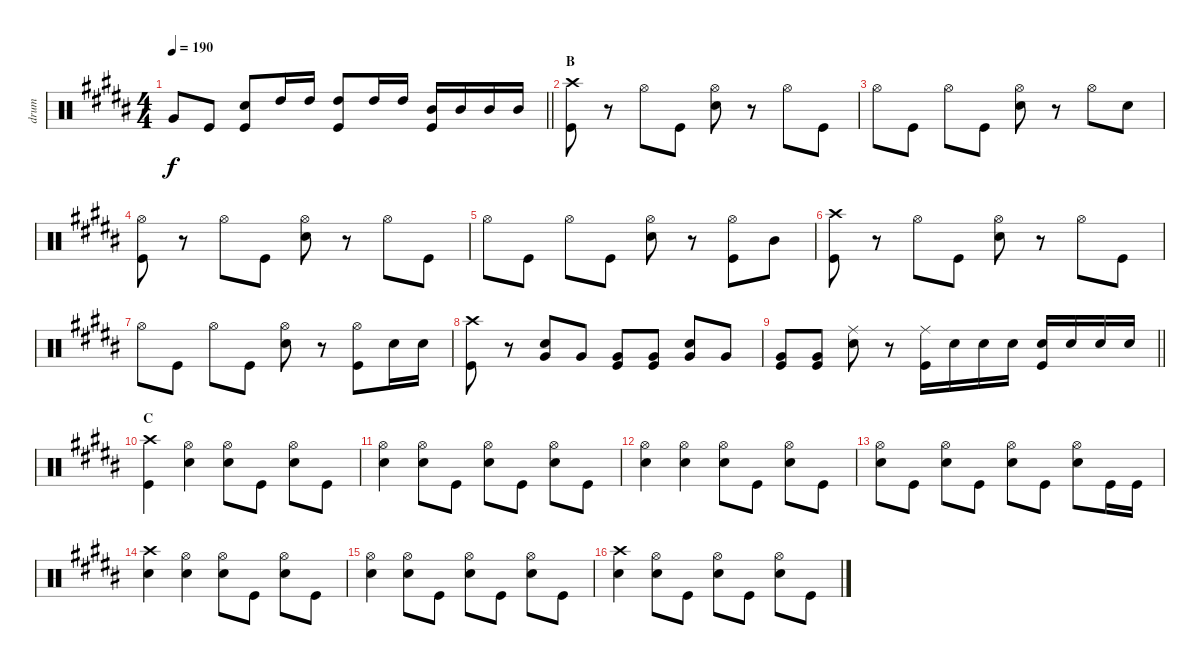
\track ("drum" "drum") {instrument percussion}
\staff {score}
\articulation defaults
\ts (4 4)
\tempo 190
\clef neutral
\barLineRight lightlight
\ks b "Very Low Tom (hit)".8{dy f} "Kick (hit)".8
("Snare (hit) 2" "Kick (hit)").8 "High Tom (hit)".16 "High Tom (hit)".16 ("High Tom (hit)" "Kick (hit)").8 "High Tom (hit)".16 "High Tom (hit)".16 ("Mid Tom (hit)" "Kick (hit)").16 "Mid Tom (hit)".16 "Mid Tom (hit)".16 "Mid Tom (hit)".16 |
\section ("" "B")
("Crash high (hit)" "Kick (hit)").8 r.8 "Hi-Hat (open)".8 "Kick (hit)".8 ("Hi-Hat (open)" "Snare (hit) 2").8 r.8 "Hi-Hat (open)".8 "Kick (hit)".8 |
"Hi-Hat (open)".8 "Kick (hit)".8 "Hi-Hat (open)".8 "Kick (hit)".8 ("Hi-Hat (open)" "Snare (hit) 2").8 r.8 "Hi-Hat (open)".8 "Snare (hit) 2".8 |
("Hi-Hat (open)" "Kick (hit)").8 r.8 "Hi-Hat (open)".8 "Kick (hit)".8 ("Hi-Hat (open)" "Snare (hit) 2").8 r.8 "Hi-Hat (open)".8 "Kick (hit)".8 |
"Hi-Hat (open)".8 "Kick (hit)".8 "Hi-Hat (open)".8 "Kick (hit)".8 ("Hi-Hat (open)" "Snare (hit) 2").8 r.8 ("Hi-Hat (open)" "Kick (hit)").8 "Mid Tom (hit)".8 |
("Crash high (hit)" "Kick (hit)").8 r.8 "Hi-Hat (open)".8 "Kick (hit)".8 ("Hi-Hat (open)" "Snare (hit) 2").8 r.8 "Hi-Hat (open)".8 "Kick (hit)".8 |
"Hi-Hat (open)".8 "Kick (hit)".8 "Hi-Hat (open)".8 "Kick (hit)".8 ("Hi-Hat (open)" "Snare (hit) 2").8 r.8 ("Hi-Hat (open)" "Kick (hit)").8 "Snare (hit) 2".16 "Snare (hit) 2".16 |
("Crash high (hit)" "Kick (hit)").8 r.8 ("Snare (hit) 2" "Very Low Tom (hit)").8 "Very Low Tom (hit)".8 ("Very Low Tom (hit)" "Kick (hit)").8 ("Very Low Tom (hit)" "Kick (hit)").8 ("Snare (hit) 2" "Very Low Tom (hit)").8 "Very Low Tom (hit)".8 |
\barLineRight lightlight
("Very Low Tom (hit)" "Kick (hit)").8 ("Very Low Tom (hit)" "Kick (hit)").8 ("Ride (middle)" "Snare (hit) 2").8 r.8 ("Ride (middle)" "Kick (hit)").16 "Snare (hit) 2".16 "Snare (hit) 2".16 "Snare (hit) 2".16 ("Snare (hit) 2" "Kick (hit)").16 "Snare (hit) 2".16 "Snare (hit) 2".16 "Snare (hit) 2".16 |
\section ("" "C")
("Crash high (hit)" "Kick (hit)").4 ("Hi-Hat (open)" "Snare (hit) 2").4 ("Hi-Hat (open)" "Snare (hit) 2").8 "Kick (hit)".8 ("Hi-Hat (open)" "Snare (hit) 2").8 "Kick (hit)".8 |
("Hi-Hat (open)" "Snare (hit) 2").4 ("Hi-Hat (open)" "Snare (hit) 2").8 "Kick (hit)".8 ("Hi-Hat (open)" "Snare (hit) 2").8 "Kick (hit)".8 ("Hi-Hat (open)" "Snare (hit) 2").8 "Kick (hit)".8 |
("Hi-Hat (open)" "Snare (hit) 2").4 ("Hi-Hat (open)" "Snare (hit) 2").4 ("Hi-Hat (open)" "Snare (hit) 2").8 "Kick (hit)".8 ("Hi-Hat (open)" "Snare (hit) 2").8 "Kick (hit)".8 |
("Hi-Hat (open)" "Snare (hit) 2").8 "Kick (hit)".8 ("Hi-Hat (open)" "Snare (hit) 2").8 "Kick (hit)".8 ("Hi-Hat (open)" "Snare (hit) 2").8 "Kick (hit)".8 ("Hi-Hat (open)" "Snare (hit) 2").8 "Kick (hit)".16 "Kick (hit)".16 |
("Crash high (hit)" "Snare (hit) 2").4 ("Hi-Hat (open)" "Snare (hit) 2").4 ("Hi-Hat (open)" "Snare (hit) 2").8 "Kick (hit)".8 ("Hi-Hat (open)" "Snare (hit) 2").8 "Kick (hit)".8 |
("Hi-Hat (open)" "Snare (hit) 2").4 ("Hi-Hat (open)" "Snare (hit) 2").8 "Kick (hit)".8 ("Hi-Hat (open)" "Snare (hit) 2").8 "Kick (hit)".8 ("Hi-Hat (open)" "Snare (hit) 2").8 "Kick (hit)".8 |
("Crash high (hit)" "Snare (hit) 2").4 ("Hi-Hat (open)" "Snare (hit) 2").8 "Kick (hit)".8 ("Hi-Hat (open)" "Snare (hit) 2").8 "Kick (hit)".8 ("Hi-Hat (open)" "Snare (hit) 2").8 "Kick (hit)".8
